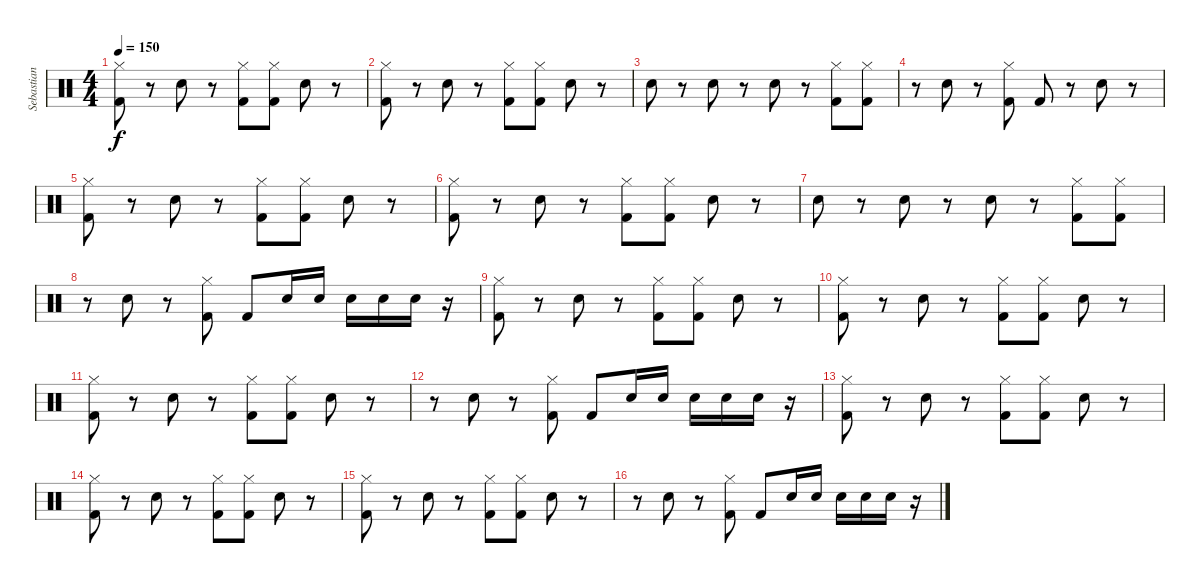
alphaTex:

\track ("Sebastian" "Sebastian") {instrument percussion}
\staff {score}
\articulation defaults
\ts (4 4)
\tempo 150
\clef neutral
\ks c
("Kick (hit) 2" "Hi-Hat (closed)").8{dy f} r.8 "Electric Snare (hit)".8 r.8 ("Kick (hit) 2" "Hi-Hat (closed)").8 ("Kick (hit) 2" "Hi-Hat (closed)").8 "Electric Snare (hit)".8 r.8 |
("Kick (hit) 2" "Hi-Hat (closed)").8 r.8 "Electric Snare (hit)".8 r.8 ("Kick (hit) 2" "Hi-Hat (closed)").8 ("Kick (hit) 2" "Hi-Hat (closed)").8 "Electric Snare (hit)".8 r.8 |
"Electric Snare (hit)".8 r.8 "Electric Snare (hit)".8 r.8 "Electric Snare (hit)".8 r.8 ("Kick (hit) 2" "Hi-Hat (closed)").8 ("Kick (hit) 2" "Hi-Hat (closed)").8 |
r.8 "Electric Snare (hit)".8 r.8 ("Kick (hit) 2" "Hi-Hat (closed)").8 "Kick (hit) 2".8 r.8 "Electric Snare (hit)".8 r.8 |
("Kick (hit) 2" "Hi-Hat (closed)").8 r.8 "Electric Snare (hit)".8 r.8 ("Kick (hit) 2" "Hi-Hat (closed)").8 ("Kick (hit) 2" "Hi-Hat (closed)").8 "Electric Snare (hit)".8 r.8 |
("Kick (hit) 2" "Hi-Hat (closed)").8 r.8 "Electric Snare (hit)".8 r.8 ("Kick (hit) 2" "Hi-Hat (closed)").8 ("Kick (hit) 2" "Hi-Hat (closed)").8 "Electric Snare (hit)".8 r.8 |
"Electric Snare (hit)".8 r.8 "Electric Snare (hit)".8 r.8 "Electric Snare (hit)".8 r.8 ("Kick (hit) 2" "Hi-Hat (closed)").8 ("Kick (hit) 2" "Hi-Hat (closed)").8 |
r.8 "Electric Snare (hit)".8 r.8 ("Kick (hit) 2" "Hi-Hat (closed)").8 "Kick (hit) 2".8 "Electric Snare (hit)".16 "Electric Snare (hit)".16 "Electric Snare (hit)".16 "Electric Snare (hit)".16 "Electric Snare (hit)".16 r.16 |
("Kick (hit) 2" "Hi-Hat (closed)").8 r.8 "Electric Snare (hit)".8 r.8 ("Kick (hit) 2" "Hi-Hat (closed)").8 ("Kick (hit) 2" "Hi-Hat (closed)").8 "Electric Snare (hit)".8 r.8 |
("Kick (hit) 2" "Hi-Hat (closed)").8 r.8 "Electric Snare (hit)".8 r.8 ("Kick (hit) 2" "Hi-Hat (closed)").8 ("Kick (hit) 2" "Hi-Hat (closed)").8 "Electric Snare (hit)".8 r.8 |
("Kick (hit) 2" "Hi-Hat (closed)").8 r.8 "Electric Snare (hit)".8 r.8 ("Kick (hit) 2" "Hi-Hat (closed)").8 ("Kick (hit) 2" "Hi-Hat (closed)").8 "Electric Snare (hit)".8 r.8 |
r.8 "Electric Snare (hit)".8 r.8 ("Kick (hit) 2" "Hi-Hat (closed)").8 "Kick (hit) 2".8 "Electric Snare (hit)".16 "Electric Snare (hit)".16 "Electric Snare (hit)".16 "Electric Snare (hit)".16 "Electric Snare (hit)".16 r.16 |
("Kick (hit) 2" "Hi-Hat (closed)").8 r.8 "Electric Snare (hit)".8 r.8 ("Kick (hit) 2" "Hi-Hat (closed)").8 ("Kick (hit) 2" "Hi-Hat (closed)").8 "Electric Snare (hit)".8 r.8 |
("Kick (hit) 2" "Hi-Hat (closed)").8 r.8 "Electric Snare (hit)".8 r.8 ("Kick (hit) 2" "Hi-Hat (closed)").8 ("Kick (hit) 2" "Hi-Hat (closed)").8 "Electric Snare (hit)".8 r.8 |
("Kick (hit) 2" "Hi-Hat (closed)").8 r.8 "Electric Snare (hit)".8 r.8 ("Kick (hit) 2" "Hi-Hat (closed)").8 ("Kick (hit) 2" "Hi-Hat (closed)").8 "Electric Snare (hit)".8 r.8 |
r.8 "Electric Snare (hit)".8 r.8 ("Kick (hit) 2" "Hi-Hat (closed)").8 "Kick (hit) 2".8 "Electric Snare (hit)".16 "Electric Snare (hit)".16 "Electric Snare (hit)".16 "Electric Snare (hit)".16 "Electric Snare (hit)".16 r.16
